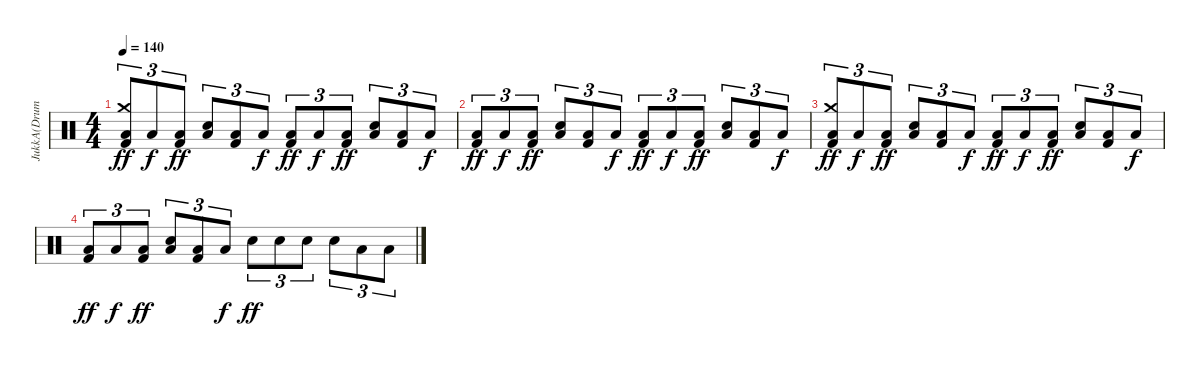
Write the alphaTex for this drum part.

\track ("JukkA(Drums)" "JukkA(Drum") {instrument percussion}
\staff {score}
\articulation defaults
\ts (4 4)
\tempo 140
\clef neutral
\ks c
("Kick (hit) 2" "Crash medium (hit)" "Low Floor Tom (hit)").8{tu (3 2) dy ff} "Low Floor Tom (hit)".8{tu (3 2) dy f} ("Kick (hit) 2" "Low Floor Tom (hit)").8{tu (3 2) dy ff} ("Snare (hit) 2" "Low Floor Tom (hit)").8{tu (3 2)} ("Kick (hit) 2" "Low Floor Tom (hit)").8{tu (3 2)} "Low Floor Tom (hit)".8{tu (3 2) dy f} ("Kick (hit) 2" "Low Floor Tom (hit)").8{tu (3 2) dy ff} "Low Floor Tom (hit)".8{tu (3 2) dy f} ("Kick (hit) 2" "Low Floor Tom (hit)").8{tu (3 2) dy ff} ("Snare (hit) 2" "Low Floor Tom (hit)").8{tu (3 2) volume 3} ("Kick (hit) 2" "Low Floor Tom (hit)").8{tu (3 2)} "Low Floor Tom (hit)".8{tu (3 2) dy f} |
("Kick (hit) 2" "Low Floor Tom (hit)").8{tu (3 2) dy ff} "Low Floor Tom (hit)".8{tu (3 2) dy f} ("Kick (hit) 2" "Low Floor Tom (hit)").8{tu (3 2) dy ff} ("Snare (hit) 2" "Low Floor Tom (hit)").8{tu (3 2)} ("Kick (hit) 2" "Low Floor Tom (hit)").8{tu (3 2)} "Low Floor Tom (hit)".8{tu (3 2) dy f} ("Kick (hit) 2" "Low Floor Tom (hit)").8{tu (3 2) dy ff} "Low Floor Tom (hit)".8{tu (3 2) dy f} ("Kick (hit) 2" "Low Floor Tom (hit)").8{tu (3 2) dy ff volume 2} ("Snare (hit) 2" "Low Floor Tom (hit)").8{tu (3 2)} ("Kick (hit) 2" "Low Floor Tom (hit)").8{tu (3 2)} "Low Floor Tom (hit)".8{tu (3 2) dy f} |
("Kick (hit) 2" "Crash medium (hit)" "Low Floor Tom (hit)").8{tu (3 2) dy ff} "Low Floor Tom (hit)".8{tu (3 2) dy f} ("Kick (hit) 2" "Low Floor Tom (hit)").8{tu (3 2) dy ff} ("Snare (hit) 2" "Low Floor Tom (hit)").8{tu (3 2)} ("Kick (hit) 2" "Low Floor Tom (hit)").8{tu (3 2)} "Low Floor Tom (hit)".8{tu (3 2) dy f} ("Kick (hit) 2" "Low Floor Tom (hit)").8{tu (3 2) dy ff} "Low Floor Tom (hit)".8{tu (3 2) dy f} ("Kick (hit) 2" "Low Floor Tom (hit)").8{tu (3 2) dy ff volume 1} ("Snare (hit) 2" "Low Floor Tom (hit)").8{tu (3 2)} ("Kick (hit) 2" "Low Floor Tom (hit)").8{tu (3 2)} "Low Floor Tom (hit)".8{tu (3 2) dy f} |
("Kick (hit) 2" "Low Floor Tom (hit)").8{tu (3 2) dy ff} "Low Floor Tom (hit)".8{tu (3 2) dy f} ("Kick (hit) 2" "Low Floor Tom (hit)").8{tu (3 2) dy ff} ("Snare (hit) 2" "Low Floor Tom (hit)").8{tu (3 2)} ("Kick (hit) 2" "Low Floor Tom (hit)").8{tu (3 2)} "Low Floor Tom (hit)".8{tu (3 2) dy f} "Snare (hit) 2".8{tu (3 2) dy ff volume 0} "Snare (hit) 2".8{tu (3 2)} "Snare (hit) 2".8{tu (3 2)} "Snare (hit) 2".8{tu (3 2)} "Low Tom (hit)".8{tu (3 2)} "Low Floor Tom (hit)".8{tu (3 2)}
